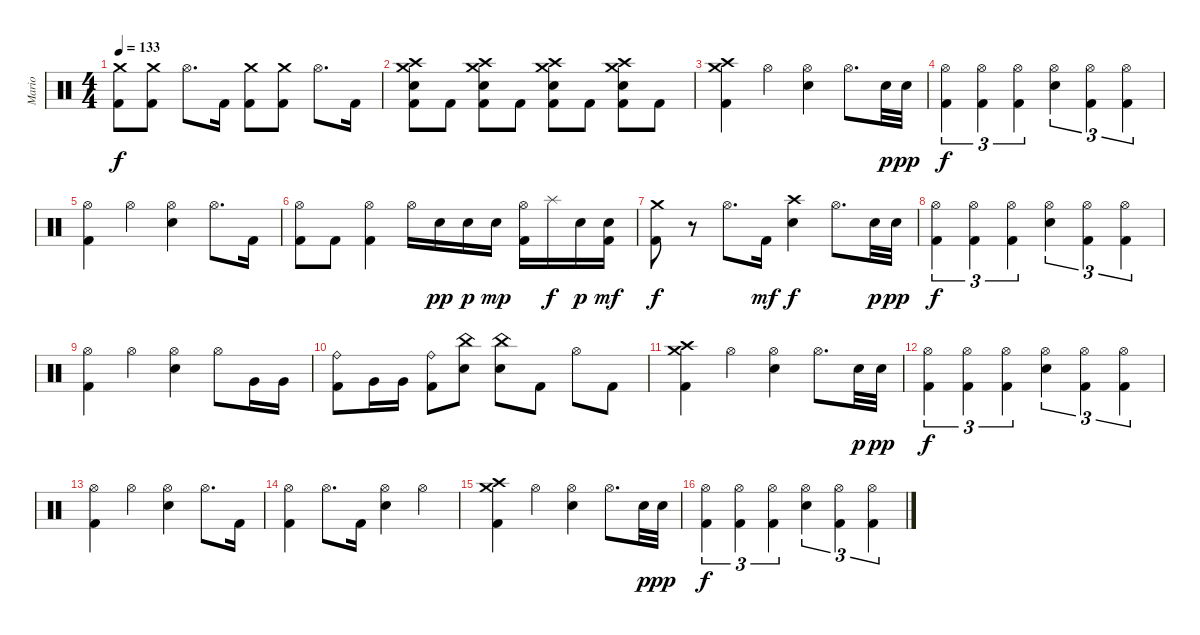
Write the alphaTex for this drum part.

\track ("Mario" "Mario") {instrument percussion}
\staff {score}
\articulation defaults
\ts (4 4)
\tempo 133
\clef neutral
\ks c
("Crash medium (hit)" "Kick (hit) 2").8{dy f} ("Crash medium (hit)" "Kick (hit) 2").8 "Hi-Hat (open)".8{d} "Kick (hit) 2".16 ("Crash medium (hit)" "Kick (hit) 2").8 ("Crash medium (hit)" "Kick (hit) 2").8 "Hi-Hat (open)".8{d} "Kick (hit) 2".16 |
("Crash medium (hit)" "Crash high (hit)" "Hand Clap (hit)" "Kick (hit) 2").8 "Kick (hit) 2".8 ("Crash medium (hit)" "Crash high (hit)" "Hand Clap (hit)" "Kick (hit) 2").8 "Kick (hit) 2".8 ("Crash medium (hit)" "Crash high (hit)" "Hand Clap (hit)" "Kick (hit) 2").8 "Kick (hit) 2".8 ("Crash medium (hit)" "Crash high (hit)" "Hand Clap (hit)" "Kick (hit) 2").8 "Kick (hit) 2".8 |
("Crash medium (hit)" "Crash high (hit)" "Kick (hit) 2").4 "Hi-Hat (open)".4 ("Hi-Hat (open)" "Electric Snare (hit)").4 "Hi-Hat (open)".8{d} "Electric Snare (hit)".32{dy p} "Electric Snare (hit)".32{dy pp} |
("Hi-Hat (open)" "Kick (hit) 2").4{tu (3 2) dy f} ("Hi-Hat (open)" "Kick (hit) 2").4{tu (3 2)} ("Hi-Hat (open)" "Kick (hit) 2").4{tu (3 2)} ("Hi-Hat (open)" "Electric Snare (hit)").4{tu (3 2)} ("Hi-Hat (open)" "Kick (hit) 2").4{tu (3 2)} ("Hi-Hat (open)" "Kick (hit) 2").4{tu (3 2)} |
("Hi-Hat (open)" "Kick (hit) 2").4 "Hi-Hat (open)".4 ("Hi-Hat (open)" "Electric Snare (hit)").4 "Hi-Hat (open)".8{d} "Kick (hit) 2".16 |
("Hi-Hat (open)" "Kick (hit) 2").8 "Kick (hit) 2".8 ("Hi-Hat (open)" "Kick (hit) 2").4 "Hi-Hat (open)".16 "Electric Snare (hit)".16{dy pp} "Electric Snare (hit)".16{dy p} "Electric Snare (hit)".16{dy mp} ("Hi-Hat (open)" "Kick (hit) 2").16 "Splash (hit)".16{dy f} "Electric Snare (hit)".16{dy p} ("Electric Snare (hit)" "Kick (hit) 2").16{dy mf} |
("Crash medium (hit)" "Kick (hit) 2").8{dy f} r.8 "Hi-Hat (open)".8{d} "Kick (hit) 2".16{dy mf} ("Crash high (hit)" "Electric Snare (hit)").4{dy f} "Hi-Hat (open)".8{d} "Electric Snare (hit)".32{dy p} "Electric Snare (hit)".32{dy pp} |
("Hi-Hat (open)" "Kick (hit) 2").4{tu (3 2) dy f} ("Hi-Hat (open)" "Kick (hit) 2").4{tu (3 2)} ("Hi-Hat (open)" "Kick (hit) 2").4{tu (3 2)} ("Hi-Hat (open)" "Electric Snare (hit)").4{tu (3 2)} ("Hi-Hat (open)" "Kick (hit) 2").4{tu (3 2)} ("Hi-Hat (open)" "Kick (hit) 2").4{tu (3 2)} |
("Hi-Hat (open)" "Kick (hit) 2").4 "Hi-Hat (open)".4 ("Hi-Hat (open)" "Electric Snare (hit)").4 "Hi-Hat (open)".8 "Very Low Tom (hit)".16 "Very Low Tom (hit)".16 |
("Ride (bell)" "Kick (hit) 2").8 "Very Low Tom (hit)".16 "Very Low Tom (hit)".16 ("Ride (bell)" "Kick (hit) 2").8 ("China (hit)" "Electric Snare (hit)").8 ("China (hit)" "Electric Snare (hit)").8 "Kick (hit) 2".8 "Hi-Hat (open)".8 "Kick (hit) 2".8 |
("Crash medium (hit)" "Crash high (hit)" "Kick (hit) 2").4 "Hi-Hat (open)".4 ("Hi-Hat (open)" "Electric Snare (hit)").4 "Hi-Hat (open)".8{d} "Electric Snare (hit)".32{dy p} "Electric Snare (hit)".32{dy pp} |
("Hi-Hat (open)" "Kick (hit) 2").4{tu (3 2) dy f} ("Hi-Hat (open)" "Kick (hit) 2").4{tu (3 2)} ("Hi-Hat (open)" "Kick (hit) 2").4{tu (3 2)} ("Hi-Hat (open)" "Electric Snare (hit)").4{tu (3 2)} ("Hi-Hat (open)" "Kick (hit) 2").4{tu (3 2)} ("Hi-Hat (open)" "Kick (hit) 2").4{tu (3 2)} |
("Hi-Hat (open)" "Kick (hit) 2").4 "Hi-Hat (open)".4 ("Hi-Hat (open)" "Electric Snare (hit)").4 "Hi-Hat (open)".8{d} "Kick (hit) 2".16 |
("Hi-Hat (open)" "Kick (hit) 2").4 "Hi-Hat (open)".8{d} "Kick (hit) 2".16 ("Hi-Hat (open)" "Electric Snare (hit)").4 "Hi-Hat (open)".4 |
("Crash medium (hit)" "Crash high (hit)" "Kick (hit) 2").4 "Hi-Hat (open)".4 ("Hi-Hat (open)" "Electric Snare (hit)").4 "Hi-Hat (open)".8{d} "Electric Snare (hit)".32{dy p} "Electric Snare (hit)".32{dy pp} |
("Hi-Hat (open)" "Kick (hit) 2").4{tu (3 2) dy f} ("Hi-Hat (open)" "Kick (hit) 2").4{tu (3 2)} ("Hi-Hat (open)" "Kick (hit) 2").4{tu (3 2)} ("Hi-Hat (open)" "Electric Snare (hit)").4{tu (3 2)} ("Hi-Hat (open)" "Kick (hit) 2").4{tu (3 2)} ("Hi-Hat (open)" "Kick (hit) 2").4{tu (3 2)}
